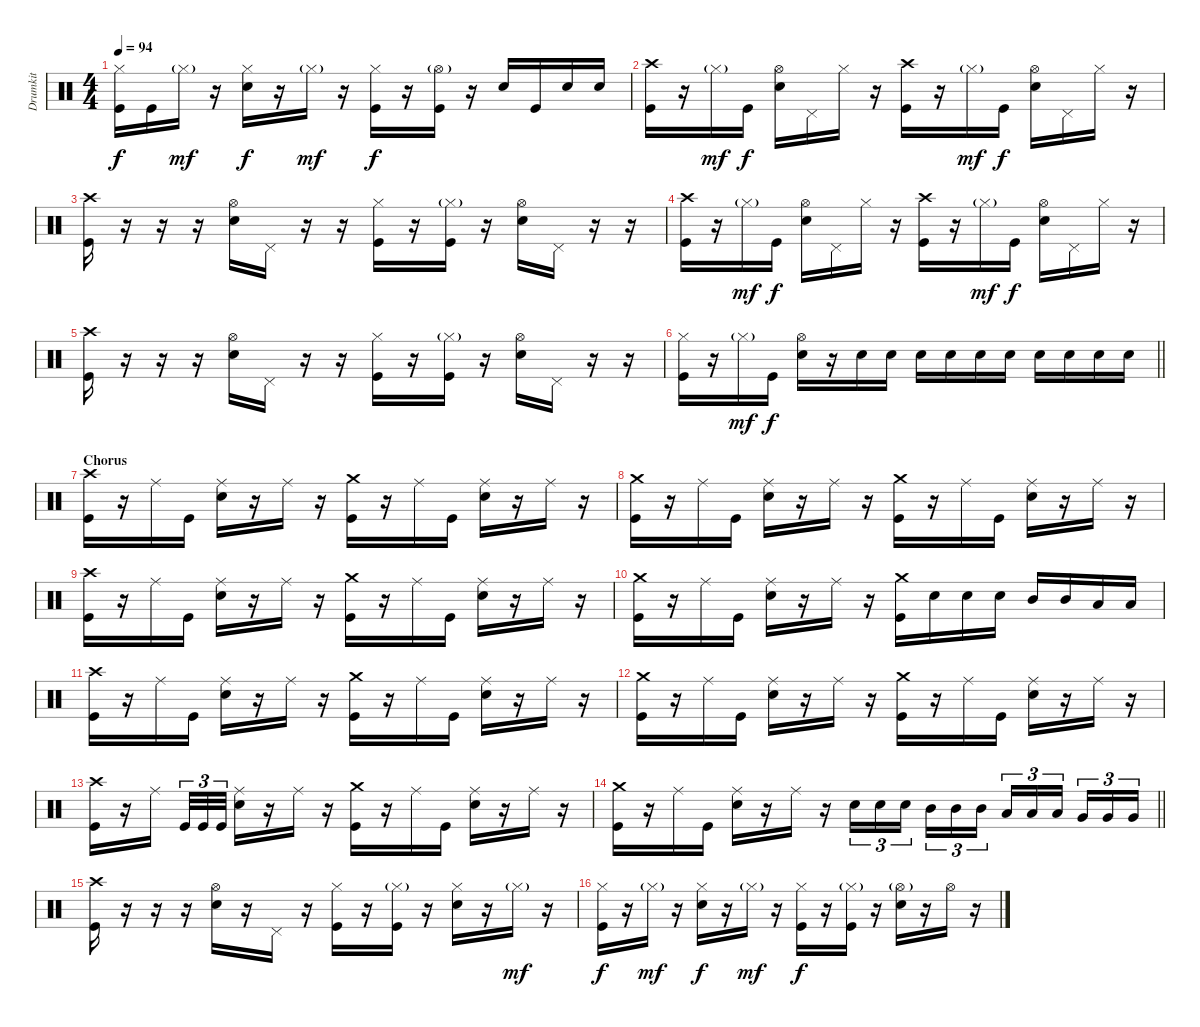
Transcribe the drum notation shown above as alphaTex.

\track ("Drumkit" "Drumkit") {instrument percussion}
\staff {score}
\articulation defaults
\ts (4 4)
\tempo 94
\clef neutral
\ks c
("Hi-Hat (closed)" "Kick (hit)").16{dy f} "Kick (hit)".16 "Hi-Hat (closed)"{g}.16{dy mf} r.16 ("Hi-Hat (closed)" "Snare (hit) 2").16{dy f} r.16 "Hi-Hat (closed)"{g}.16{dy mf} r.16 ("Hi-Hat (closed)" "Kick (hit)").16{dy f} r.16 ("Hi-Hat (open)"{g} "Kick (hit)").16 r.16 "Snare (hit) 2".16 "Kick (hit)".16 "Snare (hit) 2".16 "Snare (hit) 2".16 |
("Crash high (hit)" "Kick (hit)").16 r.16 "Hi-Hat (closed)"{g}.16{dy mf} "Kick (hit)".16{dy f} ("Hi-Hat (open)" "Snare (hit) 2").16 "Pedal Hi-Hat (hit)".16 "Hi-Hat (closed)".16 r.16 ("Crash high (hit)" "Kick (hit)").16 r.16 "Hi-Hat (closed)"{g}.16{dy mf} "Kick (hit)".16{dy f} ("Hi-Hat (open)" "Snare (hit) 2").16 "Pedal Hi-Hat (hit)".16 "Hi-Hat (closed)".16 r.16 |
("Crash high (hit)" "Kick (hit)").16 r.16 r.16 r.16 ("Hi-Hat (open)" "Snare (hit) 2").16 "Pedal Hi-Hat (hit)".16 r.16 r.16 ("Hi-Hat (closed)" "Kick (hit)").16 r.16 ("Hi-Hat (closed)"{g} "Kick (hit)").16 r.16 ("Hi-Hat (open)" "Snare (hit) 2").16 "Pedal Hi-Hat (hit)".16 r.16 r.16 |
("Crash high (hit)" "Kick (hit)").16 r.16 "Hi-Hat (closed)"{g}.16{dy mf} "Kick (hit)".16{dy f} ("Hi-Hat (open)" "Snare (hit) 2").16 "Pedal Hi-Hat (hit)".16 "Hi-Hat (closed)".16 r.16 ("Crash high (hit)" "Kick (hit)").16 r.16 "Hi-Hat (closed)"{g}.16{dy mf} "Kick (hit)".16{dy f} ("Hi-Hat (open)" "Snare (hit) 2").16 "Pedal Hi-Hat (hit)".16 "Hi-Hat (closed)".16 r.16 |
("Crash high (hit)" "Kick (hit)").16 r.16 r.16 r.16 ("Hi-Hat (open)" "Snare (hit) 2").16 "Pedal Hi-Hat (hit)".16 r.16 r.16 ("Hi-Hat (closed)" "Kick (hit)").16 r.16 ("Hi-Hat (closed)"{g} "Kick (hit)").16 r.16 ("Hi-Hat (open)" "Snare (hit) 2").16 "Pedal Hi-Hat (hit)".16 r.16 r.16 |
\barLineRight lightlight
("Hi-Hat (closed)" "Kick (hit)").16 r.16 "Hi-Hat (closed)"{g}.16{dy mf} "Kick (hit)".16{dy f} ("Hi-Hat (open)" "Snare (hit) 2").16 r.16 "Snare (hit) 2".16 "Snare (hit) 2".16 "Snare (hit) 2".16 "Snare (hit) 2".16 "Snare (hit) 2".16 "Snare (hit) 2".16 "Snare (hit) 2".16 "Snare (hit) 2".16 "Snare (hit) 2".16 "Snare (hit) 2".16 |
\section ("" "Chorus")
("Crash high (hit)" "Kick (hit)").16 r.16 "Ride (middle)".16 "Kick (hit)".16 ("Ride (middle)" "Snare (hit) 2").16 r.16 "Ride (middle)".16 r.16 ("Crash medium (hit)" "Kick (hit)").16 r.16 "Ride (middle)".16 "Kick (hit)".16 ("Ride (middle)" "Snare (hit) 2").16 r.16 "Ride (middle)".16 r.16 |
("Crash medium (hit)" "Kick (hit)").16 r.16 "Ride (middle)".16 "Kick (hit)".16 ("Ride (middle)" "Snare (hit) 2").16 r.16 "Ride (middle)".16 r.16 ("Crash medium (hit)" "Kick (hit)").16 r.16 "Ride (middle)".16 "Kick (hit)".16 ("Ride (middle)" "Snare (hit) 2").16 r.16 "Ride (middle)".16 r.16 |
("Crash high (hit)" "Kick (hit)").16 r.16 "Ride (middle)".16 "Kick (hit)".16 ("Ride (middle)" "Snare (hit) 2").16 r.16 "Ride (middle)".16 r.16 ("Crash medium (hit)" "Kick (hit)").16 r.16 "Ride (middle)".16 "Kick (hit)".16 ("Ride (middle)" "Snare (hit) 2").16 r.16 "Ride (middle)".16 r.16 |
("Crash medium (hit)" "Kick (hit)").16 r.16 "Ride (middle)".16 "Kick (hit)".16 ("Ride (middle)" "Snare (hit) 2").16 r.16 "Ride (middle)".16 r.16 ("Crash medium (hit)" "Kick (hit)").16 "Snare (hit) 2".16 "Snare (hit) 2".16 "Snare (hit) 2".16 "Mid Tom (hit)".16 "Mid Tom (hit)".16 "Low Tom (hit)".16 "Low Tom (hit)".16 |
("Crash high (hit)" "Kick (hit)").16 r.16 "Ride (middle)".16 "Kick (hit)".16 ("Ride (middle)" "Snare (hit) 2").16 r.16 "Ride (middle)".16 r.16 ("Crash medium (hit)" "Kick (hit)").16 r.16 "Ride (middle)".16 "Kick (hit)".16 ("Ride (middle)" "Snare (hit) 2").16 r.16 "Ride (middle)".16 r.16 |
("Crash medium (hit)" "Kick (hit)").16 r.16 "Ride (middle)".16 "Kick (hit)".16 ("Ride (middle)" "Snare (hit) 2").16 r.16 "Ride (middle)".16 r.16 ("Crash medium (hit)" "Kick (hit)").16 r.16 "Ride (middle)".16 "Kick (hit)".16 ("Ride (middle)" "Snare (hit) 2").16 r.16 "Ride (middle)".16 r.16 |
("Crash high (hit)" "Kick (hit)").16 r.16 "Ride (middle)".16 "Kick (hit)".32{tu (3 2)} "Kick (hit)".32{tu (3 2)} "Kick (hit)".32{tu (3 2)} ("Ride (middle)" "Snare (hit) 2").16 r.16 "Ride (middle)".16 r.16 ("Crash medium (hit)" "Kick (hit)").16 r.16 "Ride (middle)".16 "Kick (hit)".16 ("Ride (middle)" "Snare (hit) 2").16 r.16 "Ride (middle)".16 r.16 |
\barLineRight lightlight
("Crash medium (hit)" "Kick (hit)").16 r.16 "Ride (middle)".16 "Kick (hit)".16 ("Ride (middle)" "Snare (hit) 2").16 r.16 "Ride (middle)".16 r.16 "Snare (hit) 2".16{tu (3 2)} "Snare (hit) 2".16{tu (3 2)} "Snare (hit) 2".16{tu (3 2)} "Mid Tom (hit)".16{tu (3 2)} "Mid Tom (hit)".16{tu (3 2)} "Mid Tom (hit)".16{tu (3 2)} "Low Tom (hit)".16{tu (3 2)} "Low Tom (hit)".16{tu (3 2)} "Low Tom (hit)".16{tu (3 2)} "Very Low Tom (hit)".16{tu (3 2)} "Very Low Tom (hit)".16{tu (3 2)} "Very Low Tom (hit)".16{tu (3 2)} |
("Crash high (hit)" "Kick (hit)").16 r.16 r.16 r.16 ("Hi-Hat (open)" "Snare (hit) 2").16 r.16 "Pedal Hi-Hat (hit)".16 r.16 ("Hi-Hat (closed)" "Kick (hit)").16 r.16 ("Hi-Hat (closed)"{g} "Kick (hit)").16 r.16 ("Hi-Hat (closed)" "Snare (hit) 2").16 r.16 "Hi-Hat (closed)"{g}.16{dy mf} r.16 |
("Hi-Hat (closed)" "Kick (hit)").16{dy f} r.16 "Hi-Hat (closed)"{g}.16{dy mf} r.16 ("Hi-Hat (closed)" "Snare (hit) 2").16{dy f} r.16 "Hi-Hat (closed)"{g}.16{dy mf} r.16 ("Hi-Hat (closed)" "Kick (hit)").16{dy f} r.16 ("Hi-Hat (closed)"{g} "Kick (hit)").16 r.16 ("Hi-Hat (open)"{g} "Snare (hit) 2").16 r.16 "Hi-Hat (open)".16 r.16
